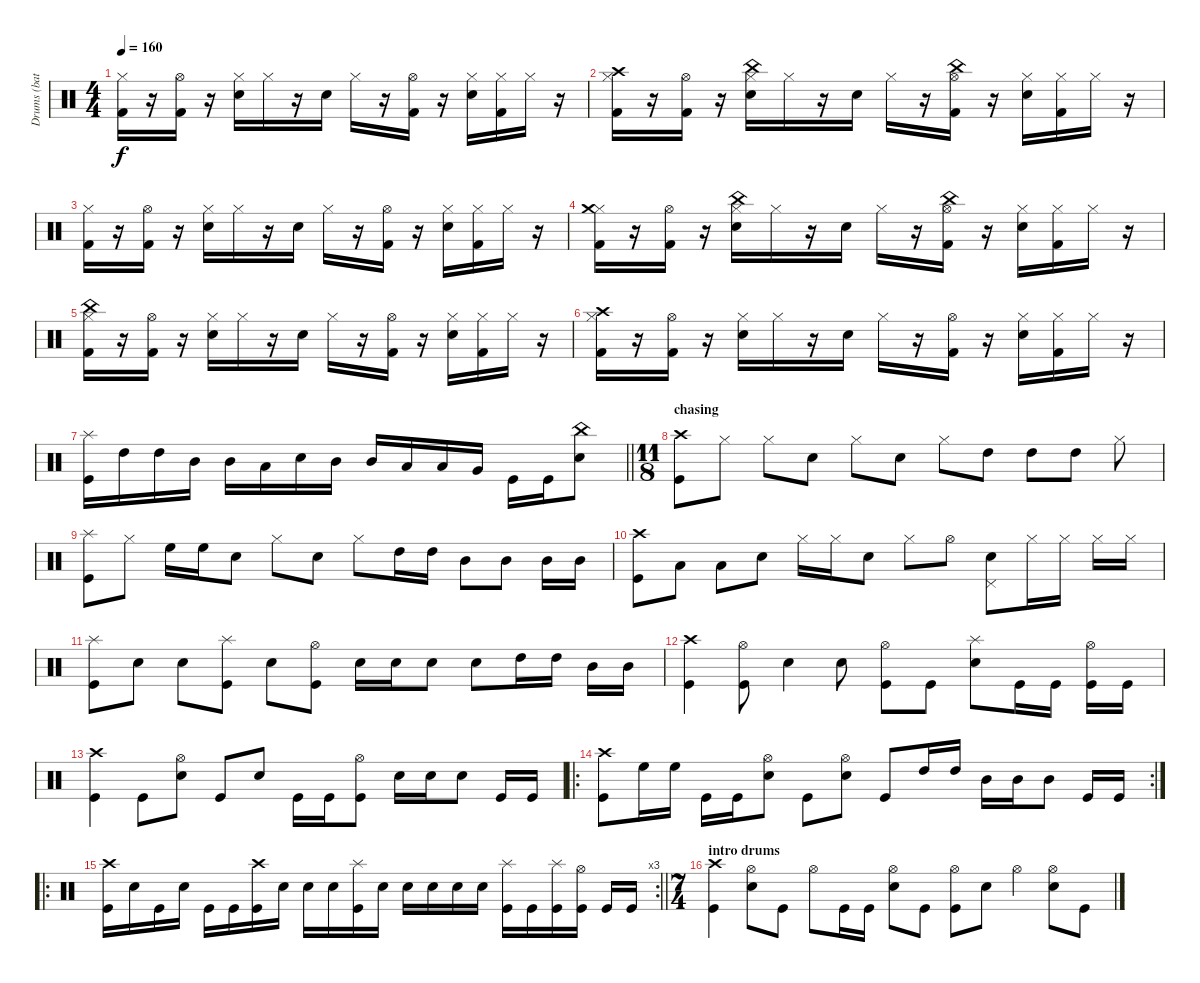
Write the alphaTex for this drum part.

\track ("Drums (bateria)" "Drums (bat") {instrument percussion}
\staff {score}
\articulation defaults
\ts (4 4)
\tempo 160
\clef neutral
\ks c
("Hi-Hat (closed)" "Kick (hit) 2").16{dy f} r.16 ("Hi-Hat (open)" "Kick (hit) 2").16 r.16 ("Hi-Hat (closed)" "Snare (hit) 2").16 "Hi-Hat (closed)".16 r.16 "Snare (hit) 2".16 "Hi-Hat (closed)".16 r.16 ("Hi-Hat (open)" "Kick (hit) 2").16 r.16 ("Hi-Hat (closed)" "Snare (hit) 2").16 ("Hi-Hat (closed)" "Kick (hit) 2").16 "Hi-Hat (closed)".16 r.16 |
("Hi-Hat (closed)" "Kick (hit) 2" "Crash high (hit)").16 r.16 ("Hi-Hat (open)" "Kick (hit) 2").16 r.16 ("Hi-Hat (closed)" "Snare (hit) 2" "China (hit)").16 "Hi-Hat (closed)".16 r.16 "Snare (hit) 2".16 "Hi-Hat (closed)".16 r.16 ("Hi-Hat (open)" "Kick (hit) 2" "China (hit)").16 r.16 ("Hi-Hat (closed)" "Snare (hit) 2").16 ("Hi-Hat (closed)" "Kick (hit) 2").16 "Hi-Hat (closed)".16 r.16 |
("Hi-Hat (closed)" "Kick (hit) 2").16 r.16 ("Hi-Hat (open)" "Kick (hit) 2").16 r.16 ("Hi-Hat (closed)" "Snare (hit) 2").16 "Hi-Hat (closed)".16 r.16 "Snare (hit) 2".16 "Hi-Hat (closed)".16 r.16 ("Hi-Hat (open)" "Kick (hit) 2").16 r.16 ("Hi-Hat (closed)" "Snare (hit) 2").16 ("Hi-Hat (closed)" "Kick (hit) 2").16 "Hi-Hat (closed)".16 r.16 |
("Hi-Hat (closed)" "Kick (hit) 2" "Crash medium (hit)").16 r.16 ("Hi-Hat (open)" "Kick (hit) 2").16 r.16 ("Hi-Hat (closed)" "Snare (hit) 2" "China (hit)").16 "Hi-Hat (closed)".16 r.16 "Snare (hit) 2".16 "Hi-Hat (closed)".16 r.16 ("Hi-Hat (open)" "Kick (hit) 2" "China (hit)").16 r.16 ("Hi-Hat (closed)" "Snare (hit) 2").16 ("Hi-Hat (closed)" "Kick (hit) 2").16 "Hi-Hat (closed)".16 r.16 |
("Hi-Hat (closed)" "Kick (hit) 2" "China (hit)").16 r.16 ("Hi-Hat (open)" "Kick (hit) 2").16 r.16 ("Hi-Hat (closed)" "Snare (hit) 2").16 "Hi-Hat (closed)".16 r.16 "Snare (hit) 2".16 "Hi-Hat (closed)".16 r.16 ("Hi-Hat (open)" "Kick (hit) 2").16 r.16 ("Hi-Hat (closed)" "Snare (hit) 2").16 ("Hi-Hat (closed)" "Kick (hit) 2").16 "Hi-Hat (closed)".16 r.16 |
("Hi-Hat (closed)" "Kick (hit) 2" "Crash high (hit)").16 r.16 ("Hi-Hat (open)" "Kick (hit) 2").16 r.16 ("Hi-Hat (closed)" "Snare (hit) 2").16 "Hi-Hat (closed)".16 r.16 "Snare (hit) 2".16 "Hi-Hat (closed)".16 r.16 ("Hi-Hat (open)" "Kick (hit) 2").16 r.16 ("Hi-Hat (closed)" "Snare (hit) 2").16 ("Hi-Hat (closed)" "Kick (hit) 2").16 "Hi-Hat (closed)".16 r.16 |
\barLineRight lightlight
("Splash (hit)" "Kick (hit)").16 "High Tom (hit)".16 "High Tom (hit)".16 "Mid Tom (hit)".16 "Mid Tom (hit)".16 "Low Tom (hit)".16 "Electric Snare (hit)".16 "Mid Tom (hit)".16 "Mid Tom (hit)".16 "Low Tom (hit)".16 "Low Tom (hit)".16 "Very Low Tom (hit)".16 "Kick (hit)".16 "Kick (hit)".16 ("China (hit)" "Electric Snare (hit)").8 |
\ts (11 8)
\section ("" "chasing")
("Crash high (hit)" "Kick (hit)").8 "Hi-Hat (closed)".8 "Hi-Hat (closed)".8 "Electric Snare (hit)".8 "Hi-Hat (closed)".8 "Electric Snare (hit)".8 "Hi-Hat (closed)".8 "High Tom (hit)".8 "High Tom (hit)".8 "High Tom (hit)".8 "Hi-Hat (closed)".8 |
("Splash (hit)" "Kick (hit)").8 "Hi-Hat (closed)".8 "High Floor Tom (hit)".16 "High Floor Tom (hit)".16 "Electric Snare (hit)".8 "Hi-Hat (closed)".8 "Electric Snare (hit)".8 "Hi-Hat (closed)".8 "High Tom (hit)".16 "High Tom (hit)".16 "Mid Tom (hit)".8 "Mid Tom (hit)".8 "Mid Tom (hit)".16 "Mid Tom (hit)".16 |
("Crash high (hit)" "Kick (hit)").8 "Low Tom (hit)".8 "Low Tom (hit)".8 "Electric Snare (hit)".8 "Hi-Hat (closed)".16 "Hi-Hat (closed)".16 "Electric Snare (hit)".8 "Hi-Hat (closed)".8 "Hi-Hat (open)".8 ("Electric Snare (hit)" "Pedal Hi-Hat (hit)").8 "Hi-Hat (closed)".16 "Hi-Hat (closed)".16 "Hi-Hat (closed)".16 "Hi-Hat (closed)".16 |
("Splash (hit)" "Kick (hit)").8 "Electric Snare (hit)".8 "Electric Snare (hit)".8 ("Splash (hit)" "Kick (hit)").8 "Electric Snare (hit)".8 ("Hi-Hat (open)" "Kick (hit)").8 "Electric Snare (hit)".16 "Electric Snare (hit)".16 "Electric Snare (hit)".8 "Electric Snare (hit)".8 "High Tom (hit)".16 "High Tom (hit)".16 "Mid Tom (hit)".16 "Mid Tom (hit)".16 |
("Crash high (hit)" "Kick (hit)").4 ("Hi-Hat (open)" "Kick (hit)").8 "Electric Snare (hit)".4 "Electric Snare (hit)".8 ("Hi-Hat (open)" "Kick (hit)").8 "Kick (hit)".8 ("Splash (hit)" "Electric Snare (hit)").8 "Kick (hit)".16 "Kick (hit)".16 ("Hi-Hat (open)" "Kick (hit)").16 "Kick (hit)".16 |
("Crash high (hit)" "Kick (hit)").4 "Kick (hit)".8 ("Hi-Hat (open)" "Electric Snare (hit)").8 "Kick (hit)".8 "Electric Snare (hit)".8 "Kick (hit)".16 "Kick (hit)".16 ("Hi-Hat (open)" "Kick (hit)").8 "Electric Snare (hit)".16 "Electric Snare (hit)".16 "Electric Snare (hit)".8 "Kick (hit)".16 "Kick (hit)".16 |
\ro
\rc 2
("Crash high (hit)" "Kick (hit)").8 "High Floor Tom (hit)".16 "High Floor Tom (hit)".16 "Kick (hit)".16 "Kick (hit)".16 ("Hi-Hat (open)" "Electric Snare (hit)").8 "Kick (hit)".8 ("Hi-Hat (open)" "Electric Snare (hit)").8 "Kick (hit)".8 "High Tom (hit)".16 "High Tom (hit)".16 "Mid Tom (hit)".16 "Mid Tom (hit)".16 "Mid Tom (hit)".8 "Kick (hit)".16 "Kick (hit)".16 |
\ro
\rc 3
\barLineRight lightlight
("Crash high (hit)" "Kick (hit)").16 "Electric Snare (hit)".16 "Kick (hit)".16 "Electric Snare (hit)".16 "Kick (hit)".16 "Kick (hit)".16 ("Crash high (hit)" "Kick (hit)").16 "Electric Snare (hit)".16 "Electric Snare (hit)".16 "Electric Snare (hit)".16 ("Splash (hit)" "Kick (hit)").16 "Electric Snare (hit)".16 "Electric Snare (hit)".16 "Electric Snare (hit)".16 "Electric Snare (hit)".16 "Electric Snare (hit)".16 ("Splash (hit)" "Kick (hit)").16 "Kick (hit)".16 ("Splash (hit)" "Kick (hit)").16 ("Hi-Hat (open)" "Kick (hit)").16 "Kick (hit)".16 "Kick (hit)".16 |
\ts (7 4)
\section ("" "intro drums")
("Crash high (hit)" "Kick (hit)").4 ("Hi-Hat (open)" "Electric Snare (hit)").8 "Kick (hit)".8 "Hi-Hat (open)".8 "Kick (hit)".16 "Kick (hit)".16 ("Hi-Hat (open)" "Electric Snare (hit)").8 "Kick (hit)".8 ("Hi-Hat (open)" "Kick (hit)").8 "Electric Snare (hit)".8 "Hi-Hat (open)".4 ("Hi-Hat (open)" "Electric Snare (hit)").8 "Kick (hit)".8
